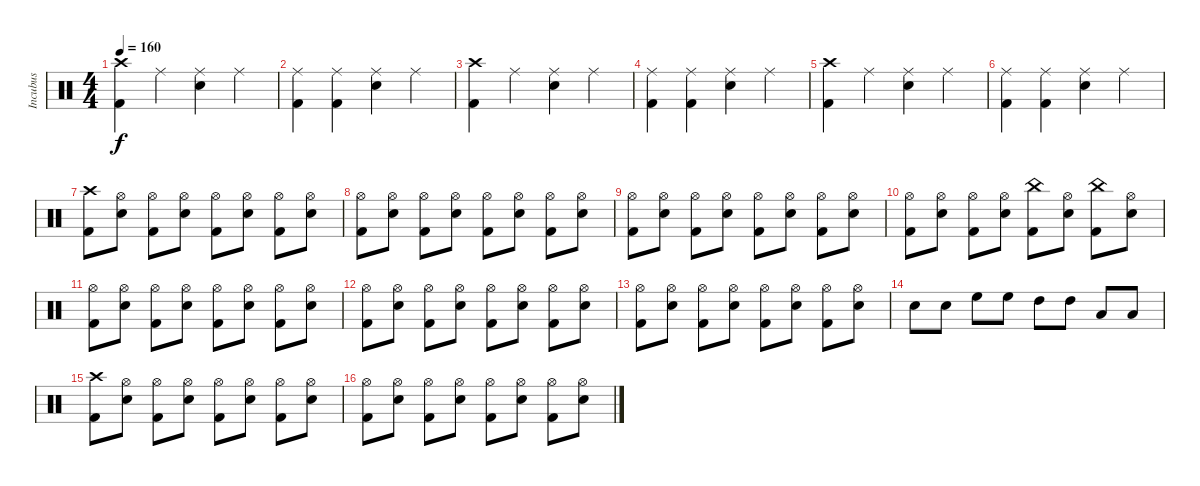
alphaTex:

\track ("Incubus" "Incubus") {instrument percussion}
\staff {score}
\articulation defaults
\ts (4 4)
\tempo 160
\clef neutral
\ks c
("Crash high (hit)" "Kick (hit) 2").4{dy f} "Ride (middle)".4 ("Ride (middle)" "Snare (hit) 2").4 "Ride (middle)".4 |
("Ride (middle)" "Kick (hit) 2").4 ("Ride (middle)" "Kick (hit) 2").4 ("Ride (middle)" "Snare (hit) 2").4 "Ride (middle)".4 |
("Crash high (hit)" "Kick (hit) 2").4 "Ride (middle)".4 ("Ride (middle)" "Snare (hit) 2").4 "Ride (middle)".4 |
("Ride (middle)" "Kick (hit) 2").4 ("Ride (middle)" "Kick (hit) 2").4 ("Ride (middle)" "Snare (hit) 2").4 "Ride (middle)".4 |
("Crash high (hit)" "Kick (hit) 2").4 "Ride (middle)".4 ("Ride (middle)" "Snare (hit) 2").4 "Ride (middle)".4 |
("Ride (middle)" "Kick (hit) 2").4 ("Ride (middle)" "Kick (hit) 2").4 ("Ride (middle)" "Snare (hit) 2").4 "Ride (middle)".4 |
("Crash high (hit)" "Kick (hit) 2").8 ("Hi-Hat (open)" "Snare (hit) 2").8 ("Hi-Hat (open)" "Kick (hit) 2").8 ("Hi-Hat (open)" "Snare (hit) 2").8 ("Hi-Hat (open)" "Kick (hit) 2").8 ("Hi-Hat (open)" "Snare (hit) 2").8 ("Hi-Hat (open)" "Kick (hit) 2").8 ("Hi-Hat (open)" "Snare (hit) 2").8 |
("Hi-Hat (open)" "Kick (hit) 2").8 ("Hi-Hat (open)" "Snare (hit) 2").8 ("Hi-Hat (open)" "Kick (hit) 2").8 ("Hi-Hat (open)" "Snare (hit) 2").8 ("Hi-Hat (open)" "Kick (hit) 2").8 ("Hi-Hat (open)" "Snare (hit) 2").8 ("Hi-Hat (open)" "Kick (hit) 2").8 ("Hi-Hat (open)" "Snare (hit) 2").8 |
("Hi-Hat (open)" "Kick (hit) 2").8 ("Hi-Hat (open)" "Snare (hit) 2").8 ("Hi-Hat (open)" "Kick (hit) 2").8 ("Hi-Hat (open)" "Snare (hit) 2").8 ("Hi-Hat (open)" "Kick (hit) 2").8 ("Hi-Hat (open)" "Snare (hit) 2").8 ("Hi-Hat (open)" "Kick (hit) 2").8 ("Hi-Hat (open)" "Snare (hit) 2").8 |
("Hi-Hat (open)" "Kick (hit) 2").8 ("Hi-Hat (open)" "Snare (hit) 2").8 ("Hi-Hat (open)" "Kick (hit) 2").8 ("Hi-Hat (open)" "Snare (hit) 2").8 ("China (hit)" "Kick (hit) 2").8 ("Hi-Hat (open)" "Snare (hit) 2").8 ("China (hit)" "Kick (hit) 2").8 ("Hi-Hat (open)" "Snare (hit) 2").8 |
("Hi-Hat (open)" "Kick (hit) 2").8 ("Hi-Hat (open)" "Snare (hit) 2").8 ("Hi-Hat (open)" "Kick (hit) 2").8 ("Hi-Hat (open)" "Snare (hit) 2").8 ("Hi-Hat (open)" "Kick (hit) 2").8 ("Hi-Hat (open)" "Snare (hit) 2").8 ("Hi-Hat (open)" "Kick (hit) 2").8 ("Hi-Hat (open)" "Snare (hit) 2").8 |
("Hi-Hat (open)" "Kick (hit) 2").8 ("Hi-Hat (open)" "Snare (hit) 2").8 ("Hi-Hat (open)" "Kick (hit) 2").8 ("Hi-Hat (open)" "Snare (hit) 2").8 ("Hi-Hat (open)" "Kick (hit) 2").8 ("Hi-Hat (open)" "Snare (hit) 2").8 ("Hi-Hat (open)" "Kick (hit) 2").8 ("Hi-Hat (open)" "Snare (hit) 2").8 |
("Hi-Hat (open)" "Kick (hit) 2").8 ("Hi-Hat (open)" "Snare (hit) 2").8 ("Hi-Hat (open)" "Kick (hit) 2").8 ("Hi-Hat (open)" "Snare (hit) 2").8 ("Hi-Hat (open)" "Kick (hit) 2").8 ("Hi-Hat (open)" "Snare (hit) 2").8 ("Hi-Hat (open)" "Kick (hit) 2").8 ("Hi-Hat (open)" "Snare (hit) 2").8 |
"Snare (hit) 2".8 "Snare (hit) 2".8 "High Floor Tom (hit)".8 "High Floor Tom (hit)".8 "High Tom (hit)".8 "High Tom (hit)".8 "Low Tom (hit)".8 "Low Tom (hit)".8 |
("Crash high (hit)" "Kick (hit) 2").8 ("Hi-Hat (open)" "Snare (hit) 2").8 ("Hi-Hat (open)" "Kick (hit) 2").8 ("Hi-Hat (open)" "Snare (hit) 2").8 ("Hi-Hat (open)" "Kick (hit) 2").8 ("Hi-Hat (open)" "Snare (hit) 2").8 ("Hi-Hat (open)" "Kick (hit) 2").8 ("Hi-Hat (open)" "Snare (hit) 2").8 |
("Hi-Hat (open)" "Kick (hit) 2").8 ("Hi-Hat (open)" "Snare (hit) 2").8 ("Hi-Hat (open)" "Kick (hit) 2").8 ("Hi-Hat (open)" "Snare (hit) 2").8 ("Hi-Hat (open)" "Kick (hit) 2").8 ("Hi-Hat (open)" "Snare (hit) 2").8 ("Hi-Hat (open)" "Kick (hit) 2").8 ("Hi-Hat (open)" "Snare (hit) 2").8
